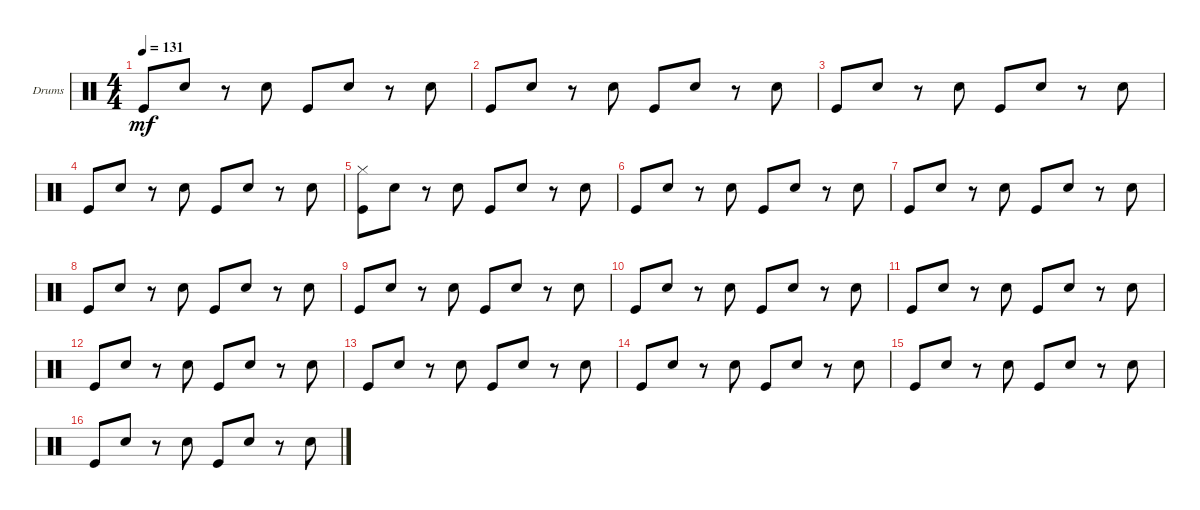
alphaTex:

\bracketExtendMode groupsimilarinstruments
\firstSystemTrackNameOrientation horizontal
\otherSystemsTrackNameOrientation horizontal
\track ("Drumkit" "Drums") {instrument percussion}
\staff {score}
\articulation defaults
\ts (4 4)
\tempo 131
\clef neutral
\scale
0.333333
\ks c "Kick (hit)".8{dy mf} "Snare (hit) 2".8
r.8 "Snare (hit) 2".8 "Kick (hit)".8 "Snare (hit) 2".8 r.8 "Snare (hit) 2".8 |
\scale
0.333333 "Kick (hit)".8 "Snare (hit) 2".8 r.8 "Snare (hit) 2".8 "Kick (hit)".8 "Snare (hit) 2".8 r.8 "Snare (hit) 2".8 |
\scale
0.333333 "Kick (hit)".8 "Snare (hit) 2".8 r.8 "Snare (hit) 2".8 "Kick (hit)".8 "Snare (hit) 2".8 r.8 "Snare (hit) 2".8 |
\scale
0.333333 "Kick (hit)".8 "Snare (hit) 2".8 r.8 "Snare (hit) 2".8 "Kick (hit)".8 "Snare (hit) 2".8 r.8 "Snare (hit) 2".8 |
\scale
0.333333 ("Kick (hit)" "Hi-Hat (closed)").8 "Snare (hit) 2".8 r.8 "Snare (hit) 2".8 "Kick (hit)".8 "Snare (hit) 2".8 r.8 "Snare (hit) 2".8 |
\scale
0.333333 "Kick (hit)".8 "Snare (hit) 2".8 r.8 "Snare (hit) 2".8 "Kick (hit)".8 "Snare (hit) 2".8 r.8 "Snare (hit) 2".8 |
\scale
0.333333 "Kick (hit)".8 "Snare (hit) 2".8 r.8 "Snare (hit) 2".8 "Kick (hit)".8 "Snare (hit) 2".8 r.8 "Snare (hit) 2".8 |
\scale
0.333333 "Kick (hit)".8 "Snare (hit) 2".8 r.8 "Snare (hit) 2".8 "Kick (hit)".8 "Snare (hit) 2".8 r.8 "Snare (hit) 2".8 |
\scale
0.333333 "Kick (hit)".8 "Snare (hit) 2".8 r.8 "Snare (hit) 2".8 "Kick (hit)".8 "Snare (hit) 2".8 r.8 "Snare (hit) 2".8 |
\scale
0.333333 "Kick (hit)".8 "Snare (hit) 2".8 r.8 "Snare (hit) 2".8 "Kick (hit)".8 "Snare (hit) 2".8 r.8 "Snare (hit) 2".8 |
\scale
0.333333 "Kick (hit)".8 "Snare (hit) 2".8 r.8 "Snare (hit) 2".8 "Kick (hit)".8 "Snare (hit) 2".8 r.8 "Snare (hit) 2".8 |
\scale
0.333333 "Kick (hit)".8 "Snare (hit) 2".8 r.8 "Snare (hit) 2".8 "Kick (hit)".8 "Snare (hit) 2".8 r.8 "Snare (hit) 2".8 |
\scale
0.333333 "Kick (hit)".8 "Snare (hit) 2".8 r.8 "Snare (hit) 2".8 "Kick (hit)".8 "Snare (hit) 2".8 r.8 "Snare (hit) 2".8 |
\scale
0.333333 "Kick (hit)".8 "Snare (hit) 2".8 r.8 "Snare (hit) 2".8 "Kick (hit)".8 "Snare (hit) 2".8 r.8 "Snare (hit) 2".8 |
\scale
0.333333 "Kick (hit)".8 "Snare (hit) 2".8 r.8 "Snare (hit) 2".8 "Kick (hit)".8 "Snare (hit) 2".8 r.8 "Snare (hit) 2".8 |
\scale
0.333333 "Kick (hit)".8 "Snare (hit) 2".8 r.8 "Snare (hit) 2".8 "Kick (hit)".8 "Snare (hit) 2".8 r.8 "Snare (hit) 2".8
